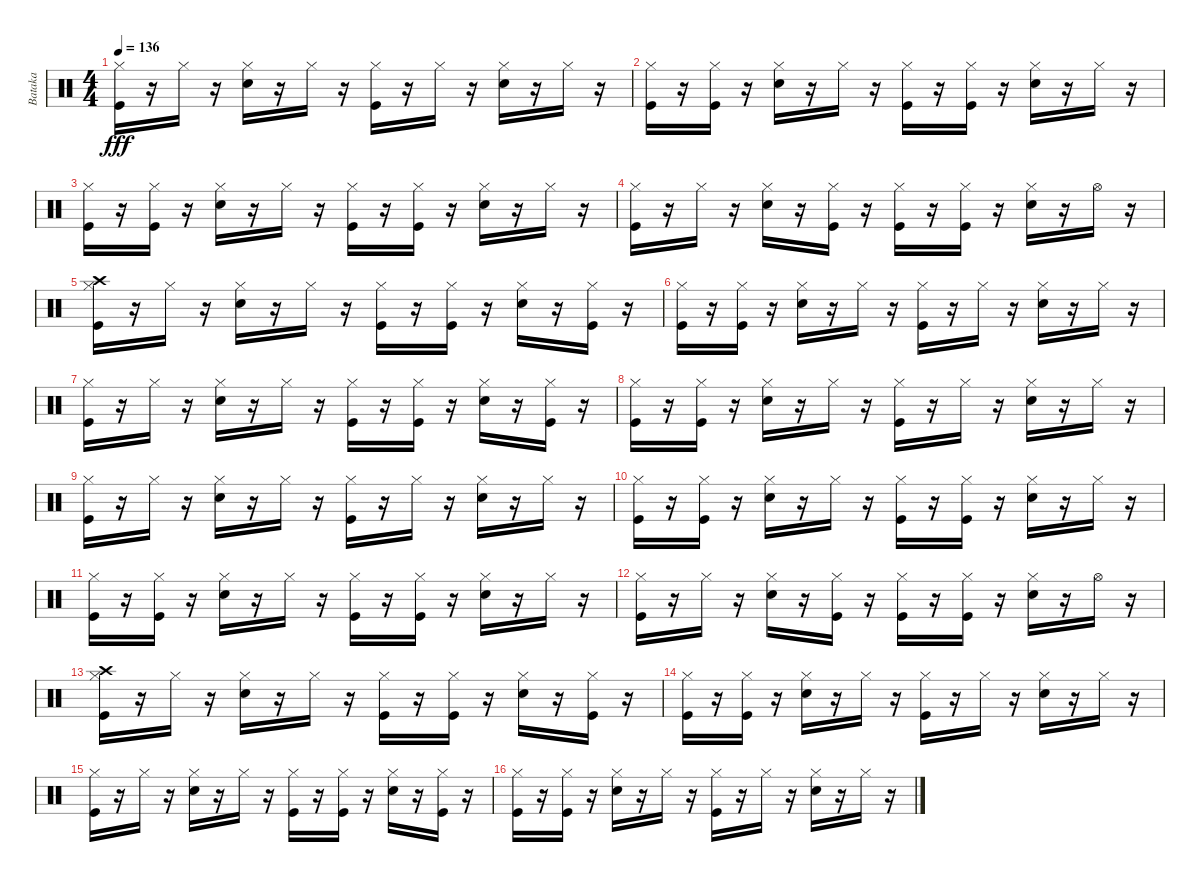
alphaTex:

\track ("Bataka" "Bataka") {instrument percussion}
\staff {score}
\articulation defaults
\ts (4 4)
\tempo 136
\clef neutral
\ks c
("Kick (hit)" "Hi-Hat (closed)").16{dy fff} r.16 "Hi-Hat (closed)".16 r.16 ("Snare (hit) 2" "Hi-Hat (closed)").16 r.16 "Hi-Hat (closed)".16 r.16 ("Kick (hit)" "Hi-Hat (closed)").16 r.16 "Hi-Hat (closed)".16 r.16 ("Snare (hit) 2" "Hi-Hat (closed)").16 r.16 "Hi-Hat (closed)".16 r.16 |
("Kick (hit)" "Hi-Hat (closed)").16 r.16 ("Kick (hit)" "Hi-Hat (closed)").16 r.16 ("Snare (hit) 2" "Hi-Hat (closed)").16 r.16 "Hi-Hat (closed)".16 r.16 ("Kick (hit)" "Hi-Hat (closed)").16 r.16 ("Kick (hit)" "Hi-Hat (closed)").16 r.16 ("Snare (hit) 2" "Hi-Hat (closed)").16 r.16 "Hi-Hat (closed)".16 r.16 |
("Kick (hit)" "Hi-Hat (closed)").16 r.16 ("Kick (hit)" "Hi-Hat (closed)").16 r.16 ("Snare (hit) 2" "Hi-Hat (closed)").16 r.16 "Hi-Hat (closed)".16 r.16 ("Kick (hit)" "Hi-Hat (closed)").16 r.16 ("Kick (hit)" "Hi-Hat (closed)").16 r.16 ("Snare (hit) 2" "Hi-Hat (closed)").16 r.16 "Hi-Hat (closed)".16 r.16 |
("Kick (hit)" "Hi-Hat (closed)").16 r.16 "Hi-Hat (closed)".16 r.16 ("Snare (hit) 2" "Hi-Hat (closed)").16 r.16 ("Kick (hit)" "Hi-Hat (closed)").16 r.16 ("Kick (hit)" "Hi-Hat (closed)").16 r.16 ("Kick (hit)" "Hi-Hat (closed)").16 r.16 ("Snare (hit) 2" "Hi-Hat (closed)").16 r.16 "Hi-Hat (open)".16 r.16 |
("Kick (hit)" "Hi-Hat (closed)" "Crash high (hit)").16 r.16 "Hi-Hat (closed)".16 r.16 ("Snare (hit) 2" "Hi-Hat (closed)").16 r.16 "Hi-Hat (closed)".16 r.16 ("Kick (hit)" "Hi-Hat (closed)").16 r.16 ("Kick (hit)" "Hi-Hat (closed)").16 r.16 ("Snare (hit) 2" "Hi-Hat (closed)").16 r.16 ("Kick (hit)" "Hi-Hat (closed)").16 r.16 |
("Kick (hit)" "Hi-Hat (closed)").16 r.16 ("Kick (hit)" "Hi-Hat (closed)").16 r.16 ("Snare (hit) 2" "Hi-Hat (closed)").16 r.16 "Hi-Hat (closed)".16 r.16 ("Kick (hit)" "Hi-Hat (closed)").16 r.16 "Hi-Hat (closed)".16 r.16 ("Snare (hit) 2" "Hi-Hat (closed)").16 r.16 "Hi-Hat (closed)".16 r.16 |
("Kick (hit)" "Hi-Hat (closed)").16 r.16 "Hi-Hat (closed)".16 r.16 ("Snare (hit) 2" "Hi-Hat (closed)").16 r.16 "Hi-Hat (closed)".16 r.16 ("Kick (hit)" "Hi-Hat (closed)").16 r.16 ("Kick (hit)" "Hi-Hat (closed)").16 r.16 ("Snare (hit) 2" "Hi-Hat (closed)").16 r.16 ("Kick (hit)" "Hi-Hat (closed)").16 r.16 |
("Kick (hit)" "Hi-Hat (closed)").16 r.16 ("Kick (hit)" "Hi-Hat (closed)").16 r.16 ("Snare (hit) 2" "Hi-Hat (closed)").16 r.16 "Hi-Hat (closed)".16 r.16 ("Kick (hit)" "Hi-Hat (closed)").16 r.16 "Hi-Hat (closed)".16 r.16 ("Snare (hit) 2" "Hi-Hat (closed)").16 r.16 "Hi-Hat (closed)".16 r.16 |
("Kick (hit)" "Hi-Hat (closed)").16 r.16 "Hi-Hat (closed)".16 r.16 ("Snare (hit) 2" "Hi-Hat (closed)").16 r.16 "Hi-Hat (closed)".16 r.16 ("Kick (hit)" "Hi-Hat (closed)").16 r.16 "Hi-Hat (closed)".16 r.16 ("Snare (hit) 2" "Hi-Hat (closed)").16 r.16 "Hi-Hat (closed)".16 r.16 |
("Kick (hit)" "Hi-Hat (closed)").16 r.16 ("Kick (hit)" "Hi-Hat (closed)").16 r.16 ("Snare (hit) 2" "Hi-Hat (closed)").16 r.16 "Hi-Hat (closed)".16 r.16 ("Kick (hit)" "Hi-Hat (closed)").16 r.16 ("Kick (hit)" "Hi-Hat (closed)").16 r.16 ("Snare (hit) 2" "Hi-Hat (closed)").16 r.16 "Hi-Hat (closed)".16 r.16 |
("Kick (hit)" "Hi-Hat (closed)").16 r.16 ("Kick (hit)" "Hi-Hat (closed)").16 r.16 ("Snare (hit) 2" "Hi-Hat (closed)").16 r.16 "Hi-Hat (closed)".16 r.16 ("Kick (hit)" "Hi-Hat (closed)").16 r.16 ("Kick (hit)" "Hi-Hat (closed)").16 r.16 ("Snare (hit) 2" "Hi-Hat (closed)").16 r.16 "Hi-Hat (closed)".16 r.16 |
("Kick (hit)" "Hi-Hat (closed)").16 r.16 "Hi-Hat (closed)".16 r.16 ("Snare (hit) 2" "Hi-Hat (closed)").16 r.16 ("Kick (hit)" "Hi-Hat (closed)").16 r.16 ("Kick (hit)" "Hi-Hat (closed)").16 r.16 ("Kick (hit)" "Hi-Hat (closed)").16 r.16 ("Snare (hit) 2" "Hi-Hat (closed)").16 r.16 "Hi-Hat (open)".16 r.16 |
("Kick (hit)" "Hi-Hat (closed)" "Crash high (hit)").16 r.16 "Hi-Hat (closed)".16 r.16 ("Snare (hit) 2" "Hi-Hat (closed)").16 r.16 "Hi-Hat (closed)".16 r.16 ("Kick (hit)" "Hi-Hat (closed)").16 r.16 ("Kick (hit)" "Hi-Hat (closed)").16 r.16 ("Snare (hit) 2" "Hi-Hat (closed)").16 r.16 ("Kick (hit)" "Hi-Hat (closed)").16 r.16 |
("Kick (hit)" "Hi-Hat (closed)").16 r.16 ("Kick (hit)" "Hi-Hat (closed)").16 r.16 ("Snare (hit) 2" "Hi-Hat (closed)").16 r.16 "Hi-Hat (closed)".16 r.16 ("Kick (hit)" "Hi-Hat (closed)").16 r.16 "Hi-Hat (closed)".16 r.16 ("Snare (hit) 2" "Hi-Hat (closed)").16 r.16 "Hi-Hat (closed)".16 r.16 |
("Kick (hit)" "Hi-Hat (closed)").16 r.16 "Hi-Hat (closed)".16 r.16 ("Snare (hit) 2" "Hi-Hat (closed)").16 r.16 "Hi-Hat (closed)".16 r.16 ("Kick (hit)" "Hi-Hat (closed)").16 r.16 ("Kick (hit)" "Hi-Hat (closed)").16 r.16 ("Snare (hit) 2" "Hi-Hat (closed)").16 r.16 ("Kick (hit)" "Hi-Hat (closed)").16 r.16 |
("Kick (hit)" "Hi-Hat (closed)").16 r.16 ("Kick (hit)" "Hi-Hat (closed)").16 r.16 ("Snare (hit) 2" "Hi-Hat (closed)").16 r.16 "Hi-Hat (closed)".16 r.16 ("Kick (hit)" "Hi-Hat (closed)").16 r.16 "Hi-Hat (closed)".16 r.16 ("Snare (hit) 2" "Hi-Hat (closed)").16 r.16 "Hi-Hat (closed)".16 r.16
